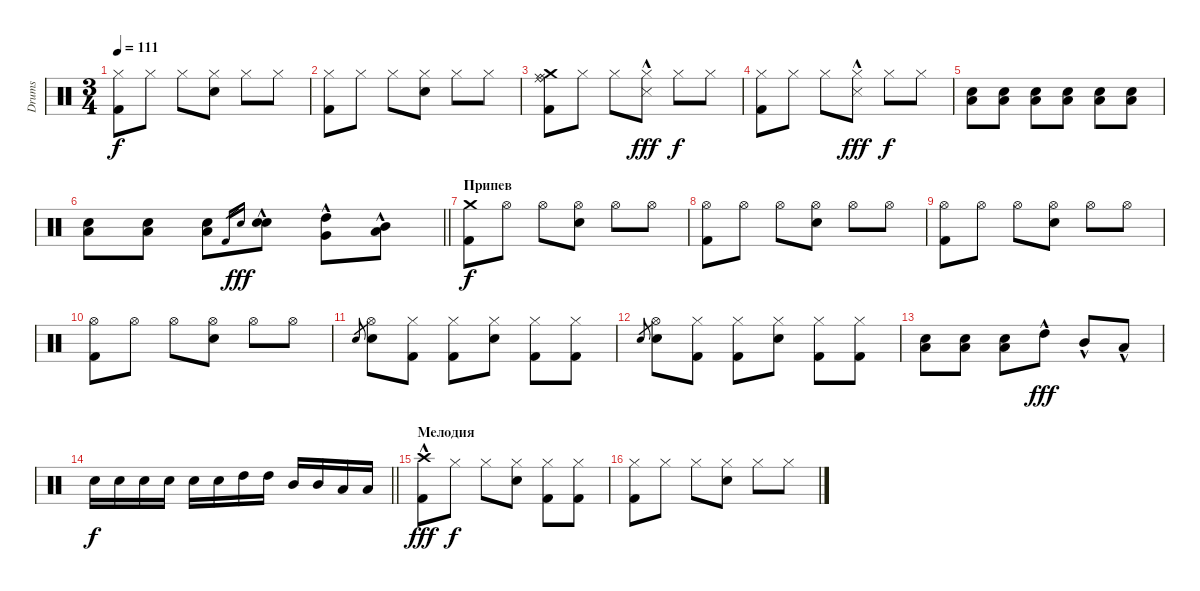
\track ("Drums" "Drums") {instrument percussion}
\staff {score}
\articulation defaults
\ts (3 4)
\tempo 111
\clef neutral
\ks c
("Hi-Hat (closed)" "Kick (hit) 2").8{dy f} "Hi-Hat (closed)".8 "Hi-Hat (closed)".8 ("Hi-Hat (closed)" "Snare (hit) 2").8 "Hi-Hat (closed)".8 "Hi-Hat (closed)".8 |
("Hi-Hat (closed)" "Kick (hit) 2").8 "Hi-Hat (closed)".8 "Hi-Hat (closed)".8 ("Hi-Hat (closed)" "Snare (hit) 2").8 "Hi-Hat (closed)".8 "Hi-Hat (closed)".8 |
("Crash medium (hit)" "Kick (hit) 2" "Ride (middle)" "Ride (bell)").8 "Hi-Hat (closed)".8 "Hi-Hat (closed)".8 ("Hi-Hat (closed)" "Snare (side stick) 3"{hac}).8{dy fff} "Hi-Hat (closed)".8{dy f} "Hi-Hat (closed)".8 |
("Hi-Hat (closed)" "Kick (hit) 2").8 "Hi-Hat (closed)".8 "Hi-Hat (closed)".8 ("Hi-Hat (closed)" "Snare (side stick) 3"{hac}).8{dy fff} "Hi-Hat (closed)".8{dy f} "Hi-Hat (closed)".8 |
("Low Tom (hit)" "Snare (hit) 2").8 ("Low Tom (hit)" "Snare (hit) 2").8 ("Low Tom (hit)" "Snare (hit) 2").8 ("Low Tom (hit)" "Snare (hit) 2").8 ("Low Tom (hit)" "Snare (hit) 2").8 ("Low Tom (hit)" "Snare (hit) 2").8 |
\barLineRight lightlight
("Low Tom (hit)" "Snare (hit) 2").8 ("Low Tom (hit)" "Snare (hit) 2").8 ("Low Tom (hit)" "Snare (hit) 2").8 "Kick (hit) 2".16{gr} "Snare (hit) 2".16{gr dy fff} ("Snare (hit) 2"{hac} "Electric Snare (hit)"{hac}).8 ("High Tom (hit)"{hac} "Very Low Tom (hit)"{hac}).8 ("Mid Tom (hit)"{hac} "Low Floor Tom (hit)"{hac}).8 |
\section ("" "Припев")
("Crash medium (hit)" "Kick (hit) 2").8{dy f} "Hi-Hat (open)".8 "Hi-Hat (open)".8 ("Hi-Hat (open)" "Snare (hit) 2").8 "Hi-Hat (open)".8 "Hi-Hat (open)".8 |
("Hi-Hat (open)" "Kick (hit) 2").8 "Hi-Hat (open)".8 "Hi-Hat (open)".8 ("Hi-Hat (open)" "Snare (hit) 2").8 "Hi-Hat (open)".8 "Hi-Hat (open)".8 |
("Hi-Hat (open)" "Kick (hit) 2").8 "Hi-Hat (open)".8 "Hi-Hat (open)".8 ("Hi-Hat (open)" "Snare (hit) 2").8 "Hi-Hat (open)".8 "Hi-Hat (open)".8 |
("Hi-Hat (open)" "Kick (hit) 2").8 "Hi-Hat (open)".8 "Hi-Hat (open)".8 ("Hi-Hat (open)" "Snare (hit) 2").8 "Hi-Hat (open)".8 "Hi-Hat (open)".8 |
"Electric Snare (hit)".8{gr} ("Hi-Hat (open)" "Snare (hit) 2").8 ("Hi-Hat (closed)" "Kick (hit) 2").8 ("Hi-Hat (closed)" "Kick (hit) 2").8 ("Hi-Hat (closed)" "Snare (hit) 2").8 ("Hi-Hat (closed)" "Kick (hit) 2").8 ("Hi-Hat (closed)" "Kick (hit) 2").8 |
"Electric Snare (hit)".8{gr} ("Hi-Hat (open)" "Snare (hit) 2").8 ("Hi-Hat (closed)" "Kick (hit) 2").8 ("Hi-Hat (closed)" "Kick (hit) 2").8 ("Hi-Hat (closed)" "Snare (hit) 2").8 ("Hi-Hat (closed)" "Kick (hit) 2").8 ("Hi-Hat (closed)" "Kick (hit) 2").8 |
("Low Floor Tom (hit)" "Snare (hit) 2").8 ("Low Floor Tom (hit)" "Snare (hit) 2").8 ("Low Floor Tom (hit)" "Snare (hit) 2").8 "High Tom (hit)"{hac}.8{dy fff} "Mid Tom (hit)"{hac}.8 "Low Tom (hit)"{hac}.8 |
\barLineRight lightlight "Snare (hit) 2".16{dy f} "Snare (hit) 2".16 "Snare (hit) 2".16 "Snare (hit) 2".16 "Snare (hit) 2".16 "Snare (hit) 2".16 "High Tom (hit)".16 "High Tom (hit)".16 "Mid Tom (hit)".16 "Mid Tom (hit)".16 "Low Tom (hit)".16 "Low Tom (hit)".16
|
\section ("" "Мелодия")
("Crash high (hit)"{hac} "Kick (hit) 2"{hac}).8{dy fff} "Hi-Hat (closed)".8{dy f} "Hi-Hat (closed)".8 ("Hi-Hat (closed)" "Snare (hit) 2").8 ("Hi-Hat (closed)" "Kick (hit) 2").8 ("Hi-Hat (closed)" "Kick (hit) 2").8 |
("Hi-Hat (closed)" "Kick (hit) 2").8 "Hi-Hat (closed)".8 "Hi-Hat (closed)".8 ("Hi-Hat (closed)" "Snare (hit) 2").8 "Hi-Hat (closed)".8 "Hi-Hat (closed)".8
